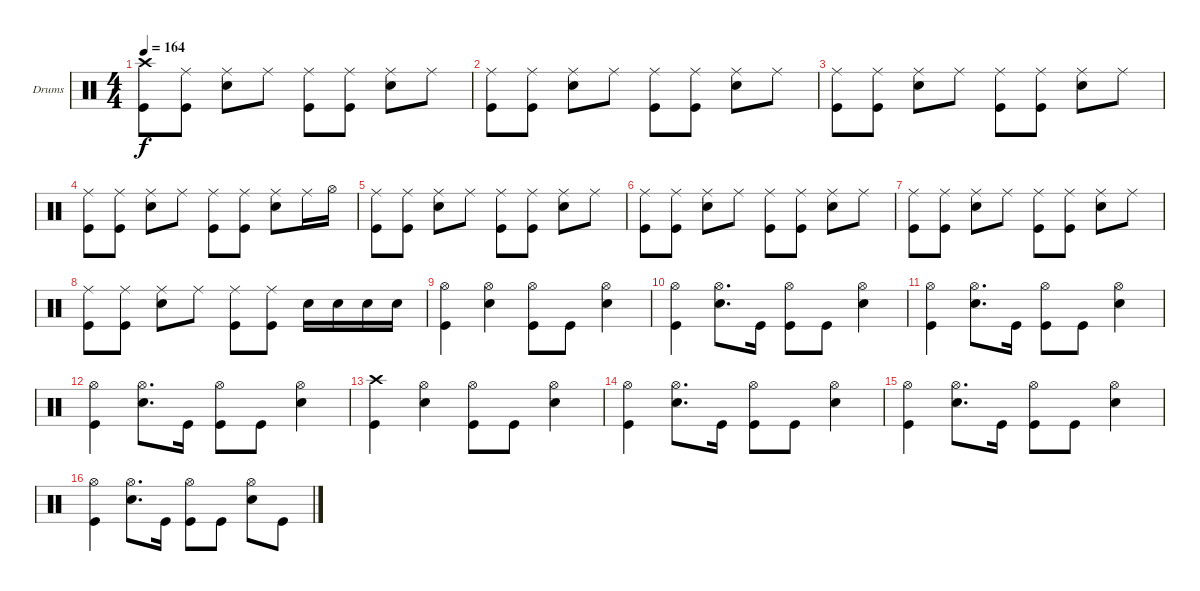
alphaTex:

\defaultSystemsLayout 4
\bracketExtendMode groupsimilarinstruments
\firstSystemTrackNameOrientation horizontal
\otherSystemsTrackNameOrientation horizontal
\track ("Drumkit" "Drums") {instrument percussion}
\staff {score}
\articulation defaults
\ts (4 4)
\tempo 164
\clef neutral
\ks c
("Crash high (hit)" "Kick (hit)").8{dy f} ("Kick (hit)" "Ride (middle)").8 ("Snare (hit) 2" "Ride (middle)").8 "Ride (middle)".8 ("Kick (hit)" "Ride (middle)").8 ("Kick (hit)" "Ride (middle)").8 ("Snare (hit) 2" "Ride (middle)").8 "Ride (middle)".8 |
("Kick (hit)" "Ride (middle)").8 ("Kick (hit)" "Ride (middle)").8 ("Snare (hit) 2" "Ride (middle)").8 "Ride (middle)".8 ("Kick (hit)" "Ride (middle)").8 ("Kick (hit)" "Ride (middle)").8 ("Snare (hit) 2" "Ride (middle)").8 "Ride (middle)".8 |
("Kick (hit)" "Ride (middle)").8 ("Kick (hit)" "Ride (middle)").8 ("Snare (hit) 2" "Ride (middle)").8 "Ride (middle)".8 ("Kick (hit)" "Ride (middle)").8 ("Kick (hit)" "Ride (middle)").8 ("Snare (hit) 2" "Ride (middle)").8 "Ride (middle)".8 |
("Kick (hit)" "Ride (middle)").8 ("Kick (hit)" "Ride (middle)").8 ("Snare (hit) 2" "Ride (middle)").8 "Ride (middle)".8 ("Kick (hit)" "Ride (middle)").8 ("Kick (hit)" "Ride (middle)").8 ("Snare (hit) 2" "Ride (middle)").8 "Ride (middle)".16 "Hi-Hat (open)".16 |
("Kick (hit)" "Ride (middle)").8 ("Kick (hit)" "Ride (middle)").8 ("Snare (hit) 2" "Ride (middle)").8 "Ride (middle)".8 ("Kick (hit)" "Ride (middle)").8 ("Kick (hit)" "Ride (middle)").8 ("Snare (hit) 2" "Ride (middle)").8 "Ride (middle)".8 |
("Kick (hit)" "Ride (middle)").8 ("Kick (hit)" "Ride (middle)").8 ("Snare (hit) 2" "Ride (middle)").8 "Ride (middle)".8 ("Kick (hit)" "Ride (middle)").8 ("Kick (hit)" "Ride (middle)").8 ("Snare (hit) 2" "Ride (middle)").8 "Ride (middle)".8 |
("Kick (hit)" "Ride (middle)").8 ("Kick (hit)" "Ride (middle)").8 ("Snare (hit) 2" "Ride (middle)").8 "Ride (middle)".8 ("Kick (hit)" "Ride (middle)").8 ("Kick (hit)" "Ride (middle)").8 ("Snare (hit) 2" "Ride (middle)").8 "Ride (middle)".8 |
("Kick (hit)" "Ride (middle)").8 ("Kick (hit)" "Ride (middle)").8 ("Snare (hit) 2" "Ride (middle)").8 "Ride (middle)".8 ("Kick (hit)" "Ride (middle)").8 ("Kick (hit)" "Ride (middle)").8 "Snare (hit) 2".16 "Snare (hit) 2".16 "Snare (hit) 2".16 "Snare (hit) 2".16 |
("Kick (hit)" "Hi-Hat (open)").4 ("Hi-Hat (open)" "Snare (hit) 2").4 ("Hi-Hat (open)" "Kick (hit)").8 "Kick (hit)".8 ("Snare (hit) 2" "Hi-Hat (open)").4 |
("Kick (hit)" "Hi-Hat (open)").4 ("Hi-Hat (open)" "Snare (hit) 2").8{d} "Kick (hit)".16 ("Hi-Hat (open)" "Kick (hit)").8 "Kick (hit)".8 ("Snare (hit) 2" "Hi-Hat (open)").4 |
("Kick (hit)" "Hi-Hat (open)").4 ("Hi-Hat (open)" "Snare (hit) 2").8{d} "Kick (hit)".16 ("Hi-Hat (open)" "Kick (hit)").8 "Kick (hit)".8 ("Snare (hit) 2" "Hi-Hat (open)").4 |
("Kick (hit)" "Hi-Hat (open)").4 ("Hi-Hat (open)" "Snare (hit) 2").8{d} "Kick (hit)".16 ("Hi-Hat (open)" "Kick (hit)").8 "Kick (hit)".8 ("Snare (hit) 2" "Hi-Hat (open)").4 |
("Kick (hit)" "Crash high (hit)").4 ("Hi-Hat (open)" "Snare (hit) 2").4 ("Hi-Hat (open)" "Kick (hit)").8 "Kick (hit)".8 ("Snare (hit) 2" "Hi-Hat (open)").4 |
("Kick (hit)" "Hi-Hat (open)").4 ("Hi-Hat (open)" "Snare (hit) 2").8{d} "Kick (hit)".16 ("Hi-Hat (open)" "Kick (hit)").8 "Kick (hit)".8 ("Snare (hit) 2" "Hi-Hat (open)").4 |
("Kick (hit)" "Hi-Hat (open)").4 ("Hi-Hat (open)" "Snare (hit) 2").8{d} "Kick (hit)".16 ("Hi-Hat (open)" "Kick (hit)").8 "Kick (hit)".8 ("Snare (hit) 2" "Hi-Hat (open)").4 |
("Kick (hit)" "Hi-Hat (open)").4 ("Hi-Hat (open)" "Snare (hit) 2").8{d} "Kick (hit)".16 ("Hi-Hat (open)" "Kick (hit)").8 "Kick (hit)".8 ("Snare (hit) 2" "Hi-Hat (open)").8 "Kick (hit)".8
